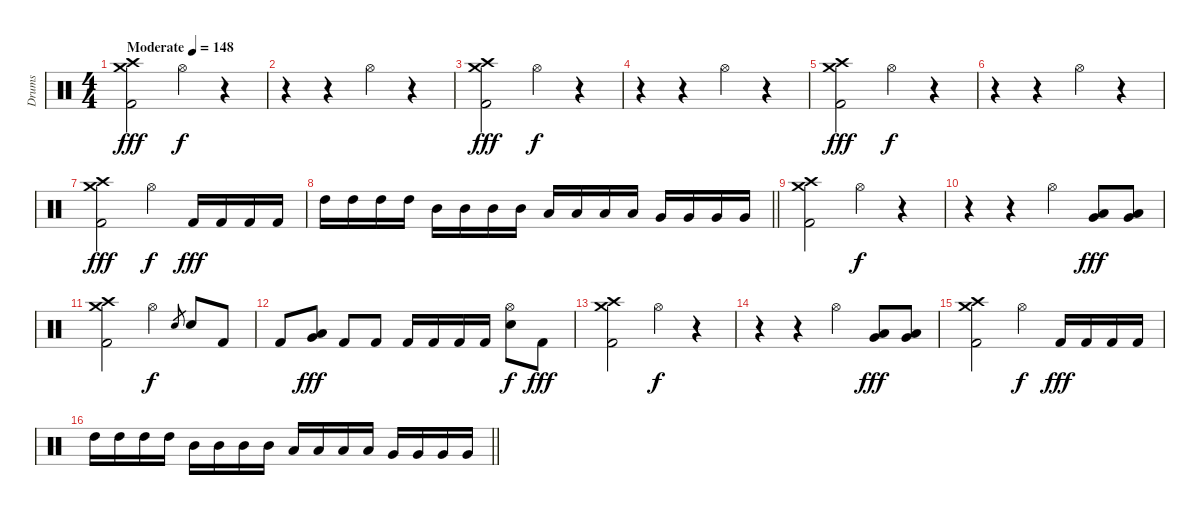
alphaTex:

\track ("Drums" "Drums") {instrument percussion}
\staff {score}
\articulation defaults
\ts (4 4)
\tempo (148 "Moderate")
\clef neutral
\ks c
("Crash medium (hit)" "Crash high (hit)" "Kick (hit) 2").2{dy fff} "Hi-Hat (open)".4{dy f} r.4 |
r.4 r.4 "Hi-Hat (open)".4 r.4 |
("Crash medium (hit)" "Crash high (hit)" "Kick (hit) 2").2{dy fff} "Hi-Hat (open)".4{dy f} r.4 |
r.4 r.4 "Hi-Hat (open)".4 r.4 |
("Crash medium (hit)" "Crash high (hit)" "Kick (hit) 2").2{dy fff} "Hi-Hat (open)".4{dy f} r.4 |
r.4 r.4 "Hi-Hat (open)".4 r.4 |
("Crash medium (hit)" "Crash high (hit)" "Kick (hit) 2").2{dy fff} "Hi-Hat (open)".4{dy f} "Kick (hit) 2".16{dy fff} "Kick (hit) 2".16 "Kick (hit) 2".16 "Kick (hit) 2".16 |
\barLineRight lightlight "High Tom (hit)".16 "High Tom (hit)".16 "High Tom (hit)".16 "High Tom (hit)".16 "Mid Tom (hit)".16 "Mid Tom (hit)".16 "Mid Tom (hit)".16 "Mid Tom (hit)".16 "Low Tom (hit)".16 "Low Tom (hit)".16 "Low Tom (hit)".16 "Low Tom (hit)".16 "Very Low Tom (hit)".16 "Very Low Tom (hit)".16 "Very Low Tom (hit)".16 "Very Low Tom (hit)".16
|
("Crash medium (hit)" "Crash high (hit)" "Kick (hit) 2").2 "Hi-Hat (open)".4{dy f} r.4 |
r.4 r.4 "Hi-Hat (open)".4 ("Low Tom (hit)" "Very Low Tom (hit)").8{dy fff} ("Low Tom (hit)" "Very Low Tom (hit)").8 |
("Crash medium (hit)" "Crash high (hit)" "Kick (hit) 2").2 "Hi-Hat (open)".4{dy f} "Electric Snare (hit)".8{gr} "Electric Snare (hit)".8 "Kick (hit) 2".8 |
"Kick (hit) 2".8 ("Low Tom (hit)" "Very Low Tom (hit)").8{dy fff} "Kick (hit) 2".8 "Kick (hit) 2".8 "Kick (hit) 2".16 "Kick (hit) 2".16 "Kick (hit) 2".16 "Kick (hit) 2".16 ("Hi-Hat (open)" "Electric Snare (hit)").8{dy f} "Kick (hit) 2".8{dy fff} |
("Crash medium (hit)" "Crash high (hit)" "Kick (hit) 2").2 "Hi-Hat (open)".4{dy f} r.4 |
r.4 r.4 "Hi-Hat (open)".4 ("Low Tom (hit)" "Very Low Tom (hit)").8{dy fff} ("Low Tom (hit)" "Very Low Tom (hit)").8 |
("Crash medium (hit)" "Crash high (hit)" "Kick (hit) 2").2 "Hi-Hat (open)".4{dy f} "Kick (hit) 2".16{dy fff} "Kick (hit) 2".16 "Kick (hit) 2".16 "Kick (hit) 2".16 |
\barLineRight lightlight "High Tom (hit)".16 "High Tom (hit)".16 "High Tom (hit)".16 "High Tom (hit)".16 "Mid Tom (hit)".16 "Mid Tom (hit)".16 "Mid Tom (hit)".16 "Mid Tom (hit)".16 "Low Tom (hit)".16 "Low Tom (hit)".16 "Low Tom (hit)".16 "Low Tom (hit)".16 "Very Low Tom (hit)".16 "Very Low Tom (hit)".16 "Very Low Tom (hit)".16 "Very Low Tom (hit)".16
